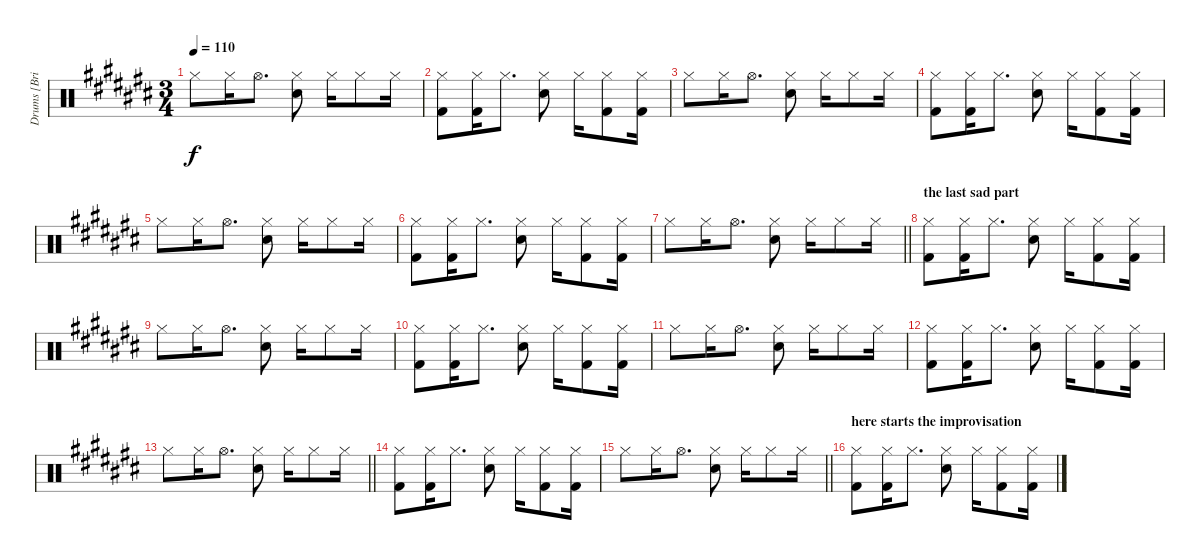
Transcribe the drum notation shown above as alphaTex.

\track ("Drums [Brian \"Brain\" Mantia]" "Drums [Bri") {instrument percussion}
\staff {score}
\articulation defaults
\ts (3 4)
\tempo 110
\clef neutral
\ks c# "Hi-Hat (closed)".8{dy f} "Hi-Hat (closed)".16 "Hi-Hat (open)".8{d}
("Hi-Hat (closed)" "Electric Snare (hit)").8 "Hi-Hat (closed)".16 "Hi-Hat (closed)".8 "Hi-Hat (closed)".16 |
("Hi-Hat (closed)" "Kick (hit) 2").8 ("Hi-Hat (closed)" "Kick (hit) 2").16 "Hi-Hat (closed)".8{d} ("Hi-Hat (closed)" "Electric Snare (hit)").8 "Hi-Hat (closed)".16 ("Hi-Hat (closed)" "Kick (hit) 2").8 ("Hi-Hat (closed)" "Kick (hit) 2").16 |
"Hi-Hat (closed)".8 "Hi-Hat (closed)".16 "Hi-Hat (open)".8{d} ("Hi-Hat (closed)" "Electric Snare (hit)").8 "Hi-Hat (closed)".16 "Hi-Hat (closed)".8 "Hi-Hat (closed)".16 |
("Hi-Hat (closed)" "Kick (hit) 2").8 ("Hi-Hat (closed)" "Kick (hit) 2").16 "Hi-Hat (closed)".8{d} ("Hi-Hat (closed)" "Electric Snare (hit)").8 "Hi-Hat (closed)".16 ("Hi-Hat (closed)" "Kick (hit) 2").8 ("Hi-Hat (closed)" "Kick (hit) 2").16 |
"Hi-Hat (closed)".8 "Hi-Hat (closed)".16 "Hi-Hat (open)".8{d} ("Hi-Hat (closed)" "Electric Snare (hit)").8 "Hi-Hat (closed)".16 "Hi-Hat (closed)".8 "Hi-Hat (closed)".16 |
("Hi-Hat (closed)" "Kick (hit) 2").8 ("Hi-Hat (closed)" "Kick (hit) 2").16 "Hi-Hat (closed)".8{d} ("Hi-Hat (closed)" "Electric Snare (hit)").8 "Hi-Hat (closed)".16 ("Hi-Hat (closed)" "Kick (hit) 2").8 ("Hi-Hat (closed)" "Kick (hit) 2").16 |
\barLineRight lightlight "Hi-Hat (closed)".8 "Hi-Hat (closed)".16 "Hi-Hat (open)".8{d}
("Hi-Hat (closed)" "Electric Snare (hit)").8 "Hi-Hat (closed)".16 "Hi-Hat (closed)".8 "Hi-Hat (closed)".16 |
\section ("" "the last sad part")
("Hi-Hat (closed)" "Kick (hit) 2").8 ("Hi-Hat (closed)" "Kick (hit) 2").16 "Hi-Hat (closed)".8{d} ("Hi-Hat (closed)" "Electric Snare (hit)").8 "Hi-Hat (closed)".16 ("Hi-Hat (closed)" "Kick (hit) 2").8 ("Hi-Hat (closed)" "Kick (hit) 2").16 |
"Hi-Hat (closed)".8 "Hi-Hat (closed)".16 "Hi-Hat (open)".8{d} ("Hi-Hat (closed)" "Electric Snare (hit)").8 "Hi-Hat (closed)".16 "Hi-Hat (closed)".8 "Hi-Hat (closed)".16 |
("Hi-Hat (closed)" "Kick (hit) 2").8 ("Hi-Hat (closed)" "Kick (hit) 2").16 "Hi-Hat (closed)".8{d} ("Hi-Hat (closed)" "Electric Snare (hit)").8 "Hi-Hat (closed)".16 ("Hi-Hat (closed)" "Kick (hit) 2").8 ("Hi-Hat (closed)" "Kick (hit) 2").16 |
"Hi-Hat (closed)".8 "Hi-Hat (closed)".16 "Hi-Hat (open)".8{d} ("Hi-Hat (closed)" "Electric Snare (hit)").8 "Hi-Hat (closed)".16 "Hi-Hat (closed)".8 "Hi-Hat (closed)".16 |
("Hi-Hat (closed)" "Kick (hit) 2").8 ("Hi-Hat (closed)" "Kick (hit) 2").16 "Hi-Hat (closed)".8{d} ("Hi-Hat (closed)" "Electric Snare (hit)").8 "Hi-Hat (closed)".16 ("Hi-Hat (closed)" "Kick (hit) 2").8 ("Hi-Hat (closed)" "Kick (hit) 2").16 |
\barLineRight lightlight "Hi-Hat (closed)".8 "Hi-Hat (closed)".16 "Hi-Hat (open)".8{d}
("Hi-Hat (closed)" "Electric Snare (hit)").8 "Hi-Hat (closed)".16 "Hi-Hat (closed)".8 "Hi-Hat (closed)".16 |
\section ("" "")
("Hi-Hat (closed)" "Kick (hit) 2").8 ("Hi-Hat (closed)" "Kick (hit) 2").16 "Hi-Hat (closed)".8{d} ("Hi-Hat (closed)" "Electric Snare (hit)").8 "Hi-Hat (closed)".16 ("Hi-Hat (closed)" "Kick (hit) 2").8 ("Hi-Hat (closed)" "Kick (hit) 2").16 |
\barLineRight lightlight "Hi-Hat (closed)".8 "Hi-Hat (closed)".16 "Hi-Hat (open)".8{d}
("Hi-Hat (closed)" "Electric Snare (hit)").8 "Hi-Hat (closed)".16 "Hi-Hat (closed)".8 "Hi-Hat (closed)".16 |
\section ("" "here starts the improvisation")
("Hi-Hat (closed)" "Kick (hit) 2").8 ("Hi-Hat (closed)" "Kick (hit) 2").16 "Hi-Hat (closed)".8{d} ("Hi-Hat (closed)" "Electric Snare (hit)").8 "Hi-Hat (closed)".16 ("Hi-Hat (closed)" "Kick (hit) 2").8 ("Hi-Hat (closed)" "Kick (hit) 2").16
